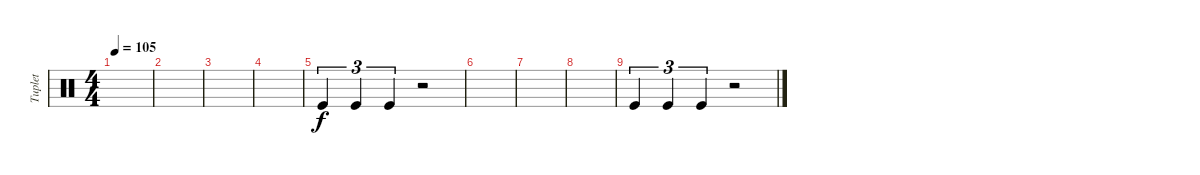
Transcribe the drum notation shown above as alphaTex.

\track ("Tuplet" "Tuplet") {instrument percussion}
\staff {score}
\articulation defaults
\ts (4 4)
\tempo 105
\clef neutral
\ks c
|
|
|
|
"Kick (hit)".4{tu (3 2)} "Kick (hit)".4{tu (3 2)} "Kick (hit)".4{tu (3 2)} r.2 |
|
|
|
"Kick (hit)".4{tu (3 2) dy f} "Kick (hit)".4{tu (3 2)} "Kick (hit)".4{tu (3 2)} r.2
